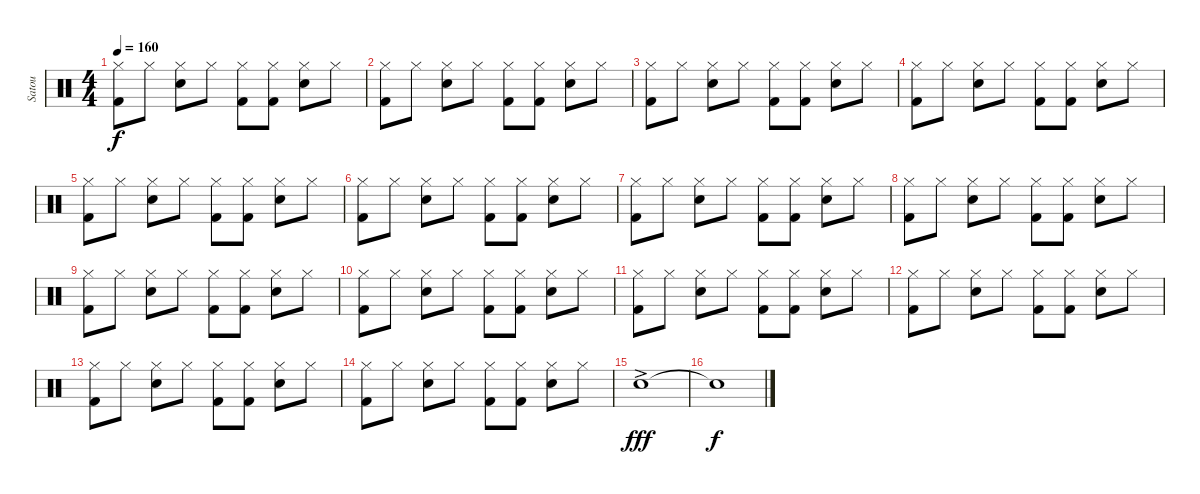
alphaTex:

\track ("Satou" "Satou") {instrument percussion}
\staff {score}
\articulation defaults
\ts (4 4)
\tempo 160
\clef neutral
\ks c
("Hi-Hat (closed)" "Kick (hit) 2").8{dy f} "Hi-Hat (closed)".8 ("Hi-Hat (closed)" "Snare (hit) 2").8 "Hi-Hat (closed)".8 ("Hi-Hat (closed)" "Kick (hit) 2").8 ("Hi-Hat (closed)" "Kick (hit) 2").8 ("Hi-Hat (closed)" "Snare (hit) 2").8 "Hi-Hat (closed)".8 |
("Hi-Hat (closed)" "Kick (hit) 2").8 "Hi-Hat (closed)".8 ("Hi-Hat (closed)" "Snare (hit) 2").8 "Hi-Hat (closed)".8 ("Hi-Hat (closed)" "Kick (hit) 2").8 ("Hi-Hat (closed)" "Kick (hit) 2").8 ("Hi-Hat (closed)" "Snare (hit) 2").8 "Hi-Hat (closed)".8 |
("Hi-Hat (closed)" "Kick (hit) 2").8 "Hi-Hat (closed)".8 ("Hi-Hat (closed)" "Snare (hit) 2").8 "Hi-Hat (closed)".8 ("Hi-Hat (closed)" "Kick (hit) 2").8 ("Hi-Hat (closed)" "Kick (hit) 2").8 ("Hi-Hat (closed)" "Snare (hit) 2").8 "Hi-Hat (closed)".8 |
("Hi-Hat (closed)" "Kick (hit) 2").8 "Hi-Hat (closed)".8 ("Hi-Hat (closed)" "Snare (hit) 2").8 "Hi-Hat (closed)".8 ("Hi-Hat (closed)" "Kick (hit) 2").8 ("Hi-Hat (closed)" "Kick (hit) 2").8 ("Hi-Hat (closed)" "Snare (hit) 2").8 "Hi-Hat (closed)".8 |
("Hi-Hat (closed)" "Kick (hit) 2").8 "Hi-Hat (closed)".8 ("Hi-Hat (closed)" "Snare (hit) 2").8 "Hi-Hat (closed)".8 ("Hi-Hat (closed)" "Kick (hit) 2").8 ("Hi-Hat (closed)" "Kick (hit) 2").8 ("Hi-Hat (closed)" "Snare (hit) 2").8 "Hi-Hat (closed)".8 |
("Hi-Hat (closed)" "Kick (hit) 2").8 "Hi-Hat (closed)".8 ("Hi-Hat (closed)" "Snare (hit) 2").8 "Hi-Hat (closed)".8 ("Hi-Hat (closed)" "Kick (hit) 2").8 ("Hi-Hat (closed)" "Kick (hit) 2").8 ("Hi-Hat (closed)" "Snare (hit) 2").8 "Hi-Hat (closed)".8 |
("Hi-Hat (closed)" "Kick (hit) 2").8 "Hi-Hat (closed)".8 ("Hi-Hat (closed)" "Snare (hit) 2").8 "Hi-Hat (closed)".8 ("Hi-Hat (closed)" "Kick (hit) 2").8 ("Hi-Hat (closed)" "Kick (hit) 2").8 ("Hi-Hat (closed)" "Snare (hit) 2").8 "Hi-Hat (closed)".8 |
("Hi-Hat (closed)" "Kick (hit) 2").8 "Hi-Hat (closed)".8 ("Hi-Hat (closed)" "Snare (hit) 2").8 "Hi-Hat (closed)".8 ("Hi-Hat (closed)" "Kick (hit) 2").8 ("Hi-Hat (closed)" "Kick (hit) 2").8 ("Hi-Hat (closed)" "Snare (hit) 2").8 "Hi-Hat (closed)".8 |
("Hi-Hat (closed)" "Kick (hit) 2").8 "Hi-Hat (closed)".8 ("Hi-Hat (closed)" "Snare (hit) 2").8 "Hi-Hat (closed)".8 ("Hi-Hat (closed)" "Kick (hit) 2").8 ("Hi-Hat (closed)" "Kick (hit) 2").8 ("Hi-Hat (closed)" "Snare (hit) 2").8 "Hi-Hat (closed)".8 |
("Hi-Hat (closed)" "Kick (hit) 2").8 "Hi-Hat (closed)".8 ("Hi-Hat (closed)" "Snare (hit) 2").8 "Hi-Hat (closed)".8 ("Hi-Hat (closed)" "Kick (hit) 2").8 ("Hi-Hat (closed)" "Kick (hit) 2").8 ("Hi-Hat (closed)" "Snare (hit) 2").8 "Hi-Hat (closed)".8 |
("Hi-Hat (closed)" "Kick (hit) 2").8 "Hi-Hat (closed)".8 ("Hi-Hat (closed)" "Snare (hit) 2").8 "Hi-Hat (closed)".8 ("Hi-Hat (closed)" "Kick (hit) 2").8 ("Hi-Hat (closed)" "Kick (hit) 2").8 ("Hi-Hat (closed)" "Snare (hit) 2").8 "Hi-Hat (closed)".8 |
("Hi-Hat (closed)" "Kick (hit) 2").8 "Hi-Hat (closed)".8 ("Hi-Hat (closed)" "Snare (hit) 2").8 "Hi-Hat (closed)".8 ("Hi-Hat (closed)" "Kick (hit) 2").8 ("Hi-Hat (closed)" "Kick (hit) 2").8 ("Hi-Hat (closed)" "Snare (hit) 2").8 "Hi-Hat (closed)".8 |
("Hi-Hat (closed)" "Kick (hit) 2").8 "Hi-Hat (closed)".8 ("Hi-Hat (closed)" "Snare (hit) 2").8 "Hi-Hat (closed)".8 ("Hi-Hat (closed)" "Kick (hit) 2").8 ("Hi-Hat (closed)" "Kick (hit) 2").8 ("Hi-Hat (closed)" "Snare (hit) 2").8 "Hi-Hat (closed)".8 |
("Hi-Hat (closed)" "Kick (hit) 2").8 "Hi-Hat (closed)".8 ("Hi-Hat (closed)" "Snare (hit) 2").8 "Hi-Hat (closed)".8 ("Hi-Hat (closed)" "Kick (hit) 2").8 ("Hi-Hat (closed)" "Kick (hit) 2").8 ("Hi-Hat (closed)" "Snare (hit) 2").8 "Hi-Hat (closed)".8 |
"Snare (hit) 2"{ac}.1{dy fff} |
"Snare (hit) 2"{t}.1{dy f}
